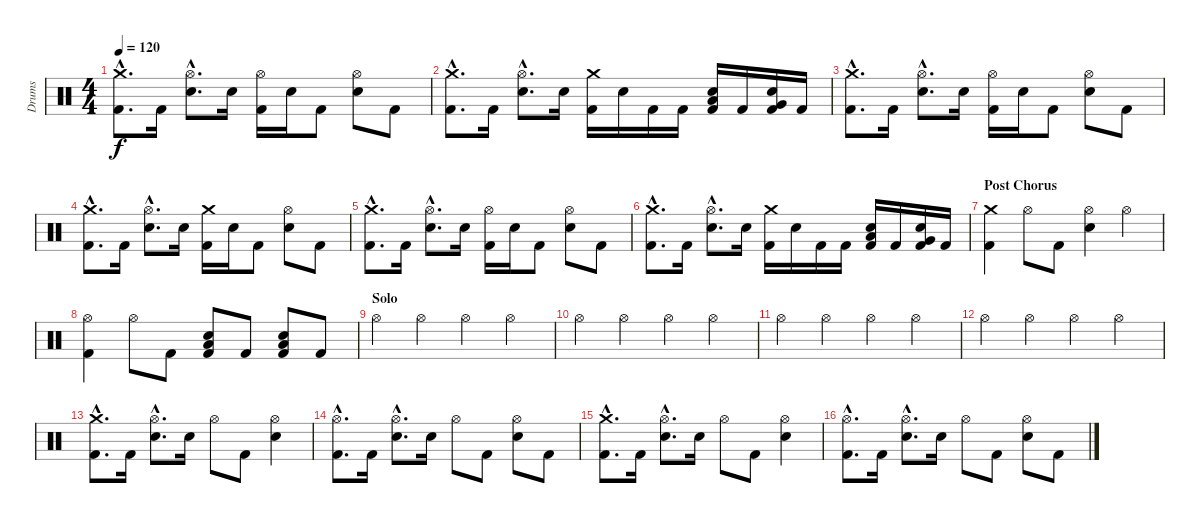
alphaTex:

\track ("Drums" "Drums") {instrument percussion}
\staff {score}
\articulation defaults
\ts (4 4)
\tempo 120
\clef neutral
\ks c
("Crash medium (hit)"{hac} "Kick (hit) 2"{hac}).8{d dy f} "Kick (hit) 2".16 ("Hi-Hat (open)"{hac} "Electric Snare (hit)"{hac}).8{d} "Electric Snare (hit)".16 ("Hi-Hat (open)" "Kick (hit) 2").16 "Electric Snare (hit)".16 "Kick (hit) 2".8 ("Hi-Hat (open)" "Electric Snare (hit)").8 "Kick (hit) 2".8 |
("Crash medium (hit)"{hac} "Kick (hit) 2"{hac}).8{d} "Kick (hit) 2".16 ("Hi-Hat (open)"{hac} "Electric Snare (hit)"{hac}).8{d} "Electric Snare (hit)".16 ("Crash medium (hit)" "Kick (hit) 2").16 "Electric Snare (hit)".16 "Kick (hit) 2".16 "Kick (hit) 2".16 ("Electric Snare (hit)" "Low Tom (hit)" "Kick (hit) 2").16 "Kick (hit) 2".16 ("Electric Snare (hit)" "Very Low Tom (hit)" "Kick (hit) 2").16 "Kick (hit) 2".16 |
("Crash medium (hit)"{hac} "Kick (hit) 2"{hac}).8{d} "Kick (hit) 2".16 ("Hi-Hat (open)"{hac} "Electric Snare (hit)"{hac}).8{d} "Electric Snare (hit)".16 ("Hi-Hat (open)" "Kick (hit) 2").16 "Electric Snare (hit)".16 "Kick (hit) 2".8 ("Hi-Hat (open)" "Electric Snare (hit)").8 "Kick (hit) 2".8 |
("Crash medium (hit)"{hac} "Kick (hit) 2"{hac}).8{d} "Kick (hit) 2".16 ("Hi-Hat (open)"{hac} "Electric Snare (hit)"{hac}).8{d} "Electric Snare (hit)".16 ("Crash medium (hit)" "Kick (hit) 2").16 "Electric Snare (hit)".16 "Kick (hit) 2".8 ("Hi-Hat (open)" "Electric Snare (hit)").8 "Kick (hit) 2".8 |
("Crash medium (hit)"{hac} "Kick (hit) 2"{hac}).8{d} "Kick (hit) 2".16 ("Hi-Hat (open)"{hac} "Electric Snare (hit)"{hac}).8{d} "Electric Snare (hit)".16 ("Hi-Hat (open)" "Kick (hit) 2").16 "Electric Snare (hit)".16 "Kick (hit) 2".8 ("Hi-Hat (open)" "Electric Snare (hit)").8 "Kick (hit) 2".8 |
("Crash medium (hit)"{hac} "Kick (hit) 2"{hac}).8{d} "Kick (hit) 2".16 ("Hi-Hat (open)"{hac} "Electric Snare (hit)"{hac}).8{d} "Electric Snare (hit)".16 ("Crash medium (hit)" "Kick (hit) 2").16 "Electric Snare (hit)".16 "Kick (hit) 2".16 "Kick (hit) 2".16 ("Electric Snare (hit)" "Low Tom (hit)" "Kick (hit) 2").16 "Kick (hit) 2".16 ("Electric Snare (hit)" "Very Low Tom (hit)" "Kick (hit) 2").16 "Kick (hit) 2".16 |
\section ("" "Post Chorus")
("Crash medium (hit)" "Kick (hit) 2").4 "Hi-Hat (open)".8 "Kick (hit) 2".8 ("Hi-Hat (open)" "Electric Snare (hit)").4 "Hi-Hat (open)".4 |
("Hi-Hat (open)" "Kick (hit) 2").4 "Hi-Hat (open)".8 "Kick (hit) 2".8 ("Electric Snare (hit)" "Low Tom (hit)" "Kick (hit) 2").8 "Kick (hit) 2".8 ("Electric Snare (hit)" "Low Floor Tom (hit)" "Kick (hit) 2").8 "Kick (hit) 2".8 |
\section ("" "Solo")
"Hi-Hat (open)".4 "Hi-Hat (open)".4 "Hi-Hat (open)".4 "Hi-Hat (open)".4 |
"Hi-Hat (open)".4 "Hi-Hat (open)".4 "Hi-Hat (open)".4 "Hi-Hat (open)".4 |
"Hi-Hat (open)".4 "Hi-Hat (open)".4 "Hi-Hat (open)".4 "Hi-Hat (open)".4 |
"Hi-Hat (open)".4 "Hi-Hat (open)".4 "Hi-Hat (open)".4 "Hi-Hat (open)".4 |
("Crash medium (hit)"{hac} "Kick (hit) 2"{hac}).8{d} "Kick (hit) 2".16 ("Hi-Hat (open)"{hac} "Electric Snare (hit)"{hac}).8{d} "Electric Snare (hit)".16 "Hi-Hat (open)".8 "Kick (hit) 2".8 ("Hi-Hat (open)" "Electric Snare (hit)").4 |
("Hi-Hat (open)"{hac} "Kick (hit) 2"{hac}).8{d} "Kick (hit) 2".16 ("Hi-Hat (open)"{hac} "Electric Snare (hit)"{hac}).8{d} "Electric Snare (hit)".16 "Hi-Hat (open)".8 "Kick (hit) 2".8 ("Hi-Hat (open)" "Electric Snare (hit)").8 "Kick (hit) 2".8 |
("Crash medium (hit)"{hac} "Kick (hit) 2"{hac}).8{d} "Kick (hit) 2".16 ("Hi-Hat (open)"{hac} "Electric Snare (hit)"{hac}).8{d} "Electric Snare (hit)".16 "Hi-Hat (open)".8 "Kick (hit) 2".8 ("Hi-Hat (open)" "Electric Snare (hit)").4 |
("Hi-Hat (open)"{hac} "Kick (hit) 2"{hac}).8{d} "Kick (hit) 2".16 ("Hi-Hat (open)"{hac} "Electric Snare (hit)"{hac}).8{d} "Electric Snare (hit)".16 "Hi-Hat (open)".8 "Kick (hit) 2".8 ("Hi-Hat (open)" "Electric Snare (hit)").8 "Kick (hit) 2".8
